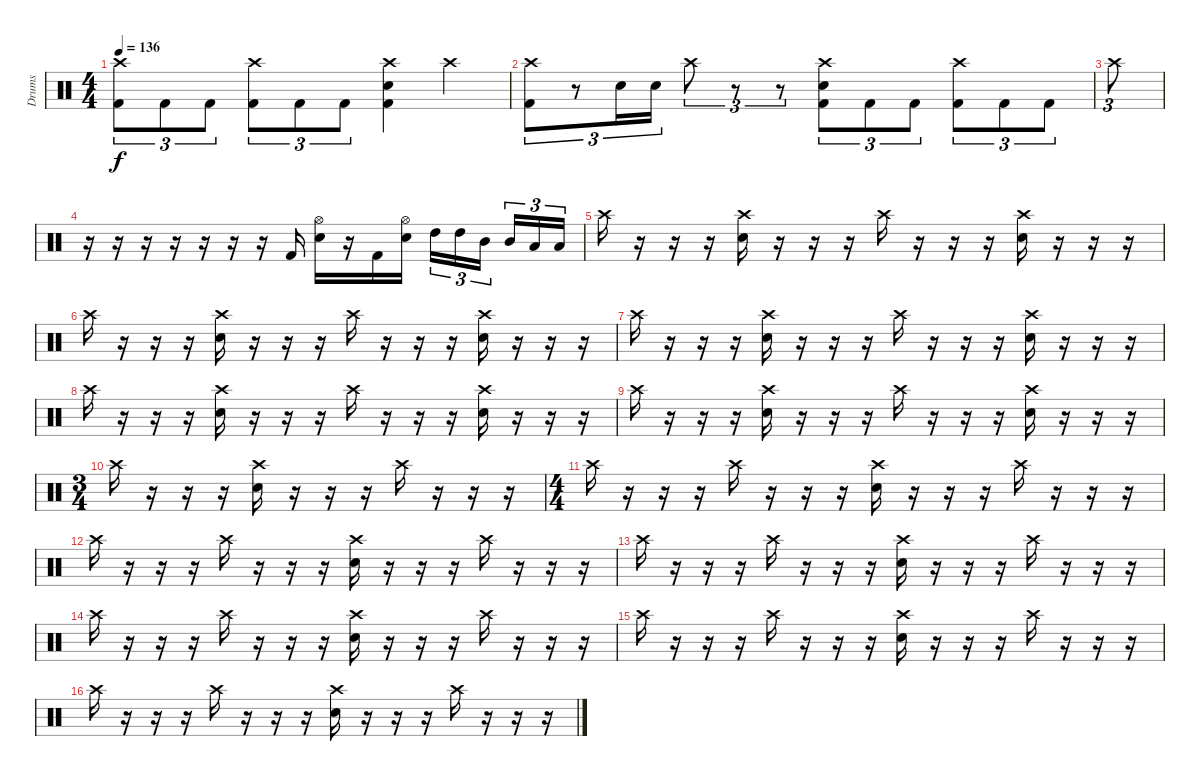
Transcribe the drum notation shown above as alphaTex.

\track ("Drums" "Drums") {instrument percussion}
\staff {score}
\articulation defaults
\ts (4 4)
\tempo 136
\clef neutral
\ks c
("Crash high (hit)" "Kick (hit) 2").8{tu (3 2) dy f} "Kick (hit) 2".8{tu (3 2)} "Kick (hit) 2".8{tu (3 2)} ("Crash high (hit)" "Kick (hit) 2").8{tu (3 2)} "Kick (hit) 2".8{tu (3 2)} "Kick (hit) 2".8{tu (3 2)} ("Crash high (hit)" "Electric Snare (hit)" "Kick (hit) 2").4 "Crash high (hit)".4 |
("Crash high (hit)" "Kick (hit) 2").8{tu (3 2)} r.8{tu (3 2)} "Electric Snare (hit)".16{tu (3 2)} "Electric Snare (hit)".16{tu (3 2)} "Crash high (hit)".8{tu (3 2)} r.8{tu (3 2)} r.8{tu (3 2)} ("Crash high (hit)" "Electric Snare (hit)" "Kick (hit) 2").8{tu (3 2)} "Kick (hit) 2".8{tu (3 2)} "Kick (hit) 2".8{tu (3 2)} ("Crash high (hit)" "Kick (hit) 2").8{tu (3 2)} "Kick (hit) 2".8{tu (3 2)} "Kick (hit) 2".8{tu (3 2)} |
"Crash high (hit)".8{tu (3 2)} |
r.16 r.16 r.16 r.16 r.16 r.16 r.16 "Kick (hit) 2".16 ("Hi-Hat (open)" "Electric Snare (hit)").16 r.16 "Kick (hit) 2".16 ("Hi-Hat (open)" "Electric Snare (hit)").16 "High Tom (hit)".16{tu (3 2)} "High Tom (hit)".16{tu (3 2)} "Mid Tom (hit)".16{tu (3 2)} "Mid Tom (hit)".16{tu (3 2)} "Low Tom (hit)".16{tu (3 2)} "Low Tom (hit)".16{tu (3 2)} |
"Crash high (hit)".16 r.16 r.16 r.16 ("Crash high (hit)" "Electric Snare (hit)").16 r.16 r.16 r.16 "Crash high (hit)".16 r.16 r.16 r.16 ("Crash high (hit)" "Electric Snare (hit)").16 r.16 r.16 r.16 |
"Crash high (hit)".16 r.16 r.16 r.16 ("Crash high (hit)" "Electric Snare (hit)").16 r.16 r.16 r.16 "Crash high (hit)".16 r.16 r.16 r.16 ("Crash high (hit)" "Electric Snare (hit)").16 r.16 r.16 r.16 |
"Crash high (hit)".16 r.16 r.16 r.16 ("Crash high (hit)" "Electric Snare (hit)").16 r.16 r.16 r.16 "Crash high (hit)".16 r.16 r.16 r.16 ("Crash high (hit)" "Electric Snare (hit)").16 r.16 r.16 r.16 |
"Crash high (hit)".16 r.16 r.16 r.16 ("Crash high (hit)" "Electric Snare (hit)").16 r.16 r.16 r.16 "Crash high (hit)".16 r.16 r.16 r.16 ("Crash high (hit)" "Electric Snare (hit)").16 r.16 r.16 r.16 |
"Crash high (hit)".16 r.16 r.16 r.16 ("Crash high (hit)" "Electric Snare (hit)").16 r.16 r.16 r.16 "Crash high (hit)".16 r.16 r.16 r.16 ("Crash high (hit)" "Electric Snare (hit)").16 r.16 r.16 r.16 |
\ts (3 4)
"Crash high (hit)".16 r.16 r.16 r.16 ("Crash high (hit)" "Electric Snare (hit)").16 r.16 r.16 r.16 "Crash high (hit)".16 r.16 r.16 r.16 |
\ts (4 4)
"Crash high (hit)".16 r.16 r.16 r.16 "Crash high (hit)".16 r.16 r.16 r.16 ("Crash high (hit)" "Electric Snare (hit)").16 r.16 r.16 r.16 "Crash high (hit)".16 r.16 r.16 r.16 |
"Crash high (hit)".16 r.16 r.16 r.16 "Crash high (hit)".16 r.16 r.16 r.16 ("Crash high (hit)" "Electric Snare (hit)").16 r.16 r.16 r.16 "Crash high (hit)".16 r.16 r.16 r.16 |
"Crash high (hit)".16 r.16 r.16 r.16 "Crash high (hit)".16 r.16 r.16 r.16 ("Crash high (hit)" "Electric Snare (hit)").16 r.16 r.16 r.16 "Crash high (hit)".16 r.16 r.16 r.16 |
"Crash high (hit)".16 r.16 r.16 r.16 "Crash high (hit)".16 r.16 r.16 r.16 ("Crash high (hit)" "Electric Snare (hit)").16 r.16 r.16 r.16 "Crash high (hit)".16 r.16 r.16 r.16 |
"Crash high (hit)".16 r.16 r.16 r.16 "Crash high (hit)".16 r.16 r.16 r.16 ("Crash high (hit)" "Electric Snare (hit)").16 r.16 r.16 r.16 "Crash high (hit)".16 r.16 r.16 r.16 |
"Crash high (hit)".16 r.16 r.16 r.16 "Crash high (hit)".16 r.16 r.16 r.16 ("Crash high (hit)" "Electric Snare (hit)").16 r.16 r.16 r.16 "Crash high (hit)".16 r.16 r.16 r.16
